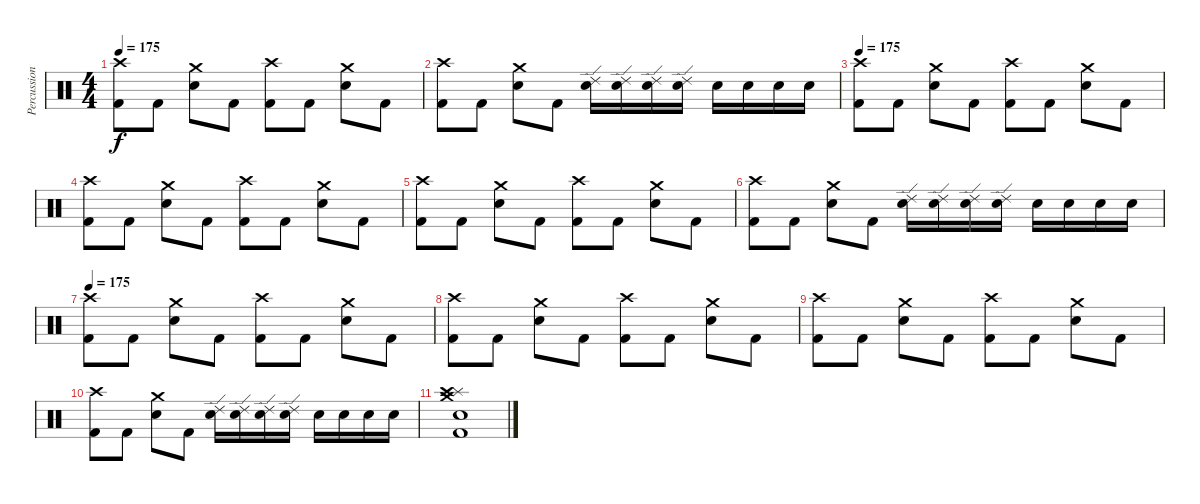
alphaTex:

\track ("Percussion" "Percussion") {instrument percussion}
\staff {score}
\articulation defaults
\ts (4 4)
\tempo 175
\clef neutral
\ks c
("Crash high (hit)" "Kick (hit) 2").8{dy f} "Kick (hit) 2".8 ("Crash medium (hit)" "Snare (hit) 2").8 "Kick (hit) 2".8 ("Crash high (hit)" "Kick (hit) 2").8 "Kick (hit) 2".8 ("Crash medium (hit)" "Snare (hit) 2").8 "Kick (hit) 2".8 |
("Crash high (hit)" "Kick (hit) 2").8 "Kick (hit) 2".8 ("Crash medium (hit)" "Snare (hit) 2").8 "Kick (hit) 2".8 ("Ride (edge) 2" "Snare (hit) 2").16 ("Ride (edge) 2" "Snare (hit) 2").16 ("Ride (edge) 2" "Snare (hit) 2").16 ("Ride (edge) 2" "Snare (hit) 2").16 "Electric Snare (hit)".16 "Electric Snare (hit)".16 "Electric Snare (hit)".16 "Electric Snare (hit)".16 |
\tempo 175
("Crash high (hit)" "Kick (hit) 2").8 "Kick (hit) 2".8 ("Crash medium (hit)" "Snare (hit) 2").8 "Kick (hit) 2".8 ("Crash high (hit)" "Kick (hit) 2").8 "Kick (hit) 2".8 ("Crash medium (hit)" "Snare (hit) 2").8 "Kick (hit) 2".8 |
("Crash high (hit)" "Kick (hit) 2").8 "Kick (hit) 2".8 ("Crash medium (hit)" "Snare (hit) 2").8 "Kick (hit) 2".8 ("Crash high (hit)" "Kick (hit) 2").8 "Kick (hit) 2".8 ("Crash medium (hit)" "Snare (hit) 2").8 "Kick (hit) 2".8 |
("Crash high (hit)" "Kick (hit) 2").8 "Kick (hit) 2".8 ("Crash medium (hit)" "Snare (hit) 2").8 "Kick (hit) 2".8 ("Crash high (hit)" "Kick (hit) 2").8 "Kick (hit) 2".8 ("Crash medium (hit)" "Snare (hit) 2").8 "Kick (hit) 2".8 |
("Crash high (hit)" "Kick (hit) 2").8 "Kick (hit) 2".8 ("Crash medium (hit)" "Snare (hit) 2").8 "Kick (hit) 2".8 ("Ride (edge) 2" "Snare (hit) 2").16 ("Ride (edge) 2" "Snare (hit) 2").16 ("Ride (edge) 2" "Snare (hit) 2").16 ("Ride (edge) 2" "Snare (hit) 2").16 "Electric Snare (hit)".16 "Electric Snare (hit)".16 "Electric Snare (hit)".16 "Electric Snare (hit)".16 |
\tempo 175
("Crash high (hit)" "Kick (hit) 2").8 "Kick (hit) 2".8 ("Crash medium (hit)" "Snare (hit) 2").8 "Kick (hit) 2".8 ("Crash high (hit)" "Kick (hit) 2").8 "Kick (hit) 2".8 ("Crash medium (hit)" "Snare (hit) 2").8 "Kick (hit) 2".8 |
("Crash high (hit)" "Kick (hit) 2").8 "Kick (hit) 2".8 ("Crash medium (hit)" "Snare (hit) 2").8 "Kick (hit) 2".8 ("Crash high (hit)" "Kick (hit) 2").8 "Kick (hit) 2".8 ("Crash medium (hit)" "Snare (hit) 2").8 "Kick (hit) 2".8 |
("Crash high (hit)" "Kick (hit) 2").8 "Kick (hit) 2".8 ("Crash medium (hit)" "Snare (hit) 2").8 "Kick (hit) 2".8 ("Crash high (hit)" "Kick (hit) 2").8 "Kick (hit) 2".8 ("Crash medium (hit)" "Snare (hit) 2").8 "Kick (hit) 2".8 |
("Crash high (hit)" "Kick (hit) 2").8 "Kick (hit) 2".8 ("Crash medium (hit)" "Snare (hit) 2").8 "Kick (hit) 2".8 ("Ride (edge) 2" "Snare (hit) 2").16 ("Ride (edge) 2" "Snare (hit) 2").16 ("Ride (edge) 2" "Snare (hit) 2").16 ("Ride (edge) 2" "Snare (hit) 2").16 "Electric Snare (hit)".16 "Electric Snare (hit)".16 "Electric Snare (hit)".16 "Electric Snare (hit)".16 |
("Splash (hit)" "Crash medium (hit)" "Crash high (hit)" "Snare (hit) 2" "Kick (hit) 2").1
